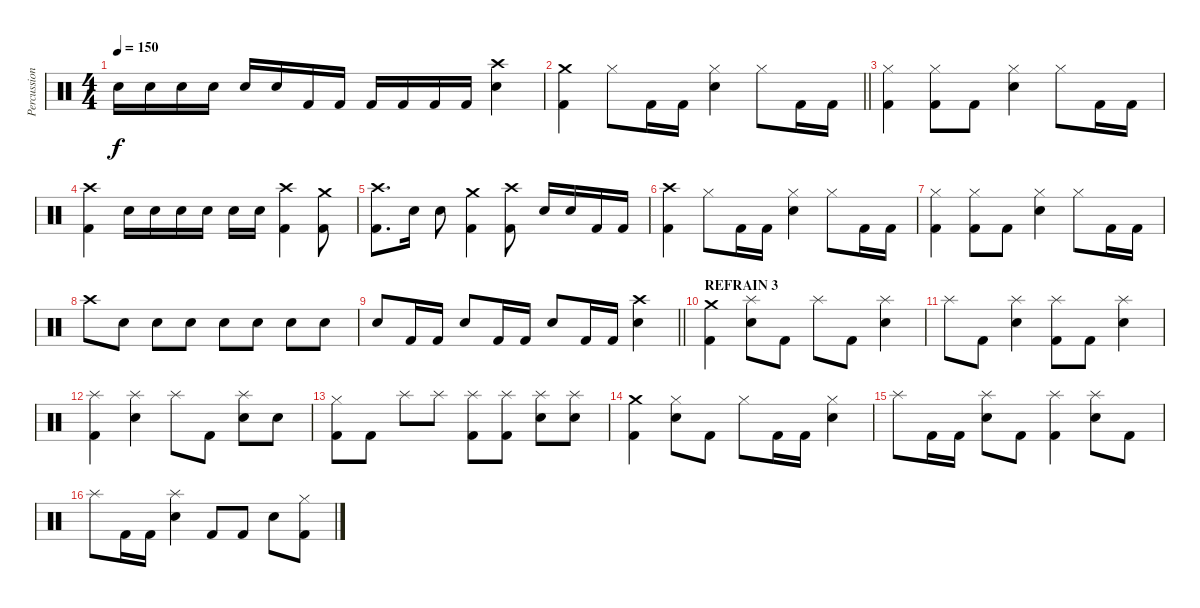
\track ("Percussion" "Percussion") {instrument percussion}
\staff {score}
\articulation defaults
\ts (4 4)
\tempo 150
\clef neutral
\ks c "Electric Snare (hit)".16{dy f} "Electric Snare (hit)".16 "Electric Snare (hit)".16 "Electric Snare (hit)".16 "Electric Snare (hit)".16 "Electric Snare (hit)".16 "Kick (hit) 2".16 "Kick (hit) 2".16 "Kick (hit) 2".16 "Kick (hit) 2".16 "Kick (hit) 2".16 "Kick (hit) 2".16
("Electric Snare (hit)" "Crash high (hit)").4 |
\barLineRight lightlight
("Kick (hit) 2" "Crash medium (hit)").4 "Hi-Hat (closed)".8 "Kick (hit) 2".16 "Kick (hit) 2".16 ("Electric Snare (hit)" "Hi-Hat (closed)").4 "Hi-Hat (closed)".8 "Kick (hit) 2".16 "Kick (hit) 2".16 |
("Kick (hit) 2" "Hi-Hat (closed)").4 ("Kick (hit) 2" "Hi-Hat (closed)").8 "Kick (hit) 2".8 ("Electric Snare (hit)" "Hi-Hat (closed)").4 "Hi-Hat (closed)".8 "Kick (hit) 2".16 "Kick (hit) 2".16 |
("Kick (hit) 2" "Crash high (hit)").4 "Electric Snare (hit)".16 "Electric Snare (hit)".16 "Electric Snare (hit)".16 "Electric Snare (hit)".16 "Electric Snare (hit)".16 "Electric Snare (hit)".16 ("Kick (hit) 2" "Crash high (hit)").4 ("Kick (hit) 2" "Crash medium (hit)").8 |
("Kick (hit) 2" "Crash high (hit)").8{d} "Electric Snare (hit)".16 "Electric Snare (hit)".8 ("Kick (hit) 2" "Crash medium (hit)").4 ("Kick (hit) 2" "Crash high (hit)").8 "Electric Snare (hit)".16 "Electric Snare (hit)".16 "Kick (hit) 2".16 "Kick (hit) 2".16 |
("Kick (hit) 2" "Crash high (hit)").4 "Hi-Hat (closed)".8 "Kick (hit) 2".16 "Kick (hit) 2".16 ("Electric Snare (hit)" "Hi-Hat (closed)").4 "Hi-Hat (closed)".8 "Kick (hit) 2".16 "Kick (hit) 2".16 |
("Kick (hit) 2" "Hi-Hat (closed)").4 ("Kick (hit) 2" "Hi-Hat (closed)").8 "Kick (hit) 2".8 ("Electric Snare (hit)" "Hi-Hat (closed)").4 "Hi-Hat (closed)".8 "Kick (hit) 2".16 "Kick (hit) 2".16 |
"Crash high (hit)".8 "Electric Snare (hit)".8 "Electric Snare (hit)".8 "Electric Snare (hit)".8 "Electric Snare (hit)".8 "Electric Snare (hit)".8 "Electric Snare (hit)".8 "Electric Snare (hit)".8 |
\barLineRight lightlight "Electric Snare (hit)".8 "Kick (hit) 2".16 "Kick (hit) 2".16 "Electric Snare (hit)".8 "Kick (hit) 2".16 "Kick (hit) 2".16 "Electric Snare (hit)".8 "Kick (hit) 2".16 "Kick (hit) 2".16
("Electric Snare (hit)" "Crash high (hit)").4 |
\section ("" "REFRAIN 3")
("Kick (hit) 2" "Crash medium (hit)").4 ("Electric Snare (hit)" "Splash (hit)").8 "Kick (hit) 2".8 "Splash (hit)".8 "Kick (hit) 2".8 ("Electric Snare (hit)" "Splash (hit)").4 |
"Splash (hit)".8 "Kick (hit) 2".8 ("Electric Snare (hit)" "Splash (hit)").4 ("Kick (hit) 2" "Splash (hit)").8 "Kick (hit) 2".8 ("Electric Snare (hit)" "Splash (hit)").4 |
("Kick (hit) 2" "Splash (hit)").4 ("Electric Snare (hit)" "Splash (hit)").4 "Splash (hit)".8 "Kick (hit) 2".8 ("Snare (hit) 2" "Splash (hit)").8 "Electric Snare (hit)".8 |
("Kick (hit) 2" "Hi-Hat (closed)").8 "Kick (hit) 2".8 "Splash (hit)".8 "Splash (hit)".8 ("Kick (hit) 2" "Splash (hit)").8 ("Kick (hit) 2" "Splash (hit)").8 ("Electric Snare (hit)" "Splash (hit)").8 ("Electric Snare (hit)" "Splash (hit)").8 |
("Kick (hit) 2" "Crash medium (hit)").4 ("Electric Snare (hit)" "Hi-Hat (closed)").8 "Kick (hit) 2".8 "Hi-Hat (closed)".8 "Kick (hit) 2".16 "Kick (hit) 2".16 ("Electric Snare (hit)" "Hi-Hat (closed)").4 |
"Splash (hit)".8 "Kick (hit) 2".16 "Kick (hit) 2".16 ("Electric Snare (hit)" "Splash (hit)").8 "Kick (hit) 2".8 ("Kick (hit) 2" "Splash (hit)").4 ("Electric Snare (hit)" "Splash (hit)").8 "Kick (hit) 2".8 |
"Splash (hit)".8 "Kick (hit) 2".16 "Kick (hit) 2".16 ("Electric Snare (hit)" "Splash (hit)").4 "Kick (hit) 2".8 "Kick (hit) 2".8 "Electric Snare (hit)".8 ("Kick (hit) 2" "Hi-Hat (closed)").8
